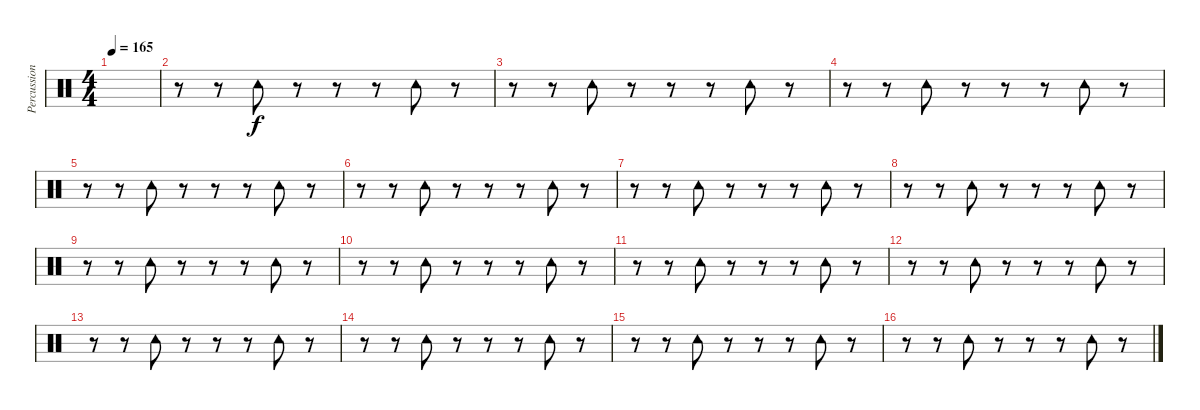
\track ("Percussion/Fills" "Percussion") {instrument percussion}
\staff {score}
\articulation defaults
\ts (4 4)
\tempo 165
\clef neutral
\ks c
|
r.8 r.8 "Tambourine (hit)".8 r.8 r.8 r.8 "Tambourine (hit)".8 r.8 |
r.8 r.8 "Tambourine (hit)".8 r.8 r.8 r.8 "Tambourine (hit)".8 r.8 |
r.8 r.8 "Tambourine (hit)".8 r.8 r.8 r.8 "Tambourine (hit)".8 r.8 |
r.8 r.8 "Tambourine (hit)".8 r.8 r.8 r.8 "Tambourine (hit)".8 r.8 |
r.8 r.8 "Tambourine (hit)".8 r.8 r.8 r.8 "Tambourine (hit)".8 r.8 |
r.8 r.8 "Tambourine (hit)".8 r.8 r.8 r.8 "Tambourine (hit)".8 r.8 |
r.8 r.8 "Tambourine (hit)".8 r.8 r.8 r.8 "Tambourine (hit)".8 r.8 |
r.8 r.8 "Tambourine (hit)".8 r.8 r.8 r.8 "Tambourine (hit)".8 r.8 |
r.8 r.8 "Tambourine (hit)".8 r.8 r.8 r.8 "Tambourine (hit)".8 r.8 |
r.8 r.8 "Tambourine (hit)".8 r.8 r.8 r.8 "Tambourine (hit)".8 r.8 |
r.8 r.8 "Tambourine (hit)".8 r.8 r.8 r.8 "Tambourine (hit)".8 r.8 |
r.8 r.8 "Tambourine (hit)".8 r.8 r.8 r.8 "Tambourine (hit)".8 r.8 |
r.8 r.8 "Tambourine (hit)".8 r.8 r.8 r.8 "Tambourine (hit)".8 r.8 |
r.8 r.8 "Tambourine (hit)".8 r.8 r.8 r.8 "Tambourine (hit)".8 r.8 |
r.8 r.8 "Tambourine (hit)".8 r.8 r.8 r.8 "Tambourine (hit)".8 r.8
